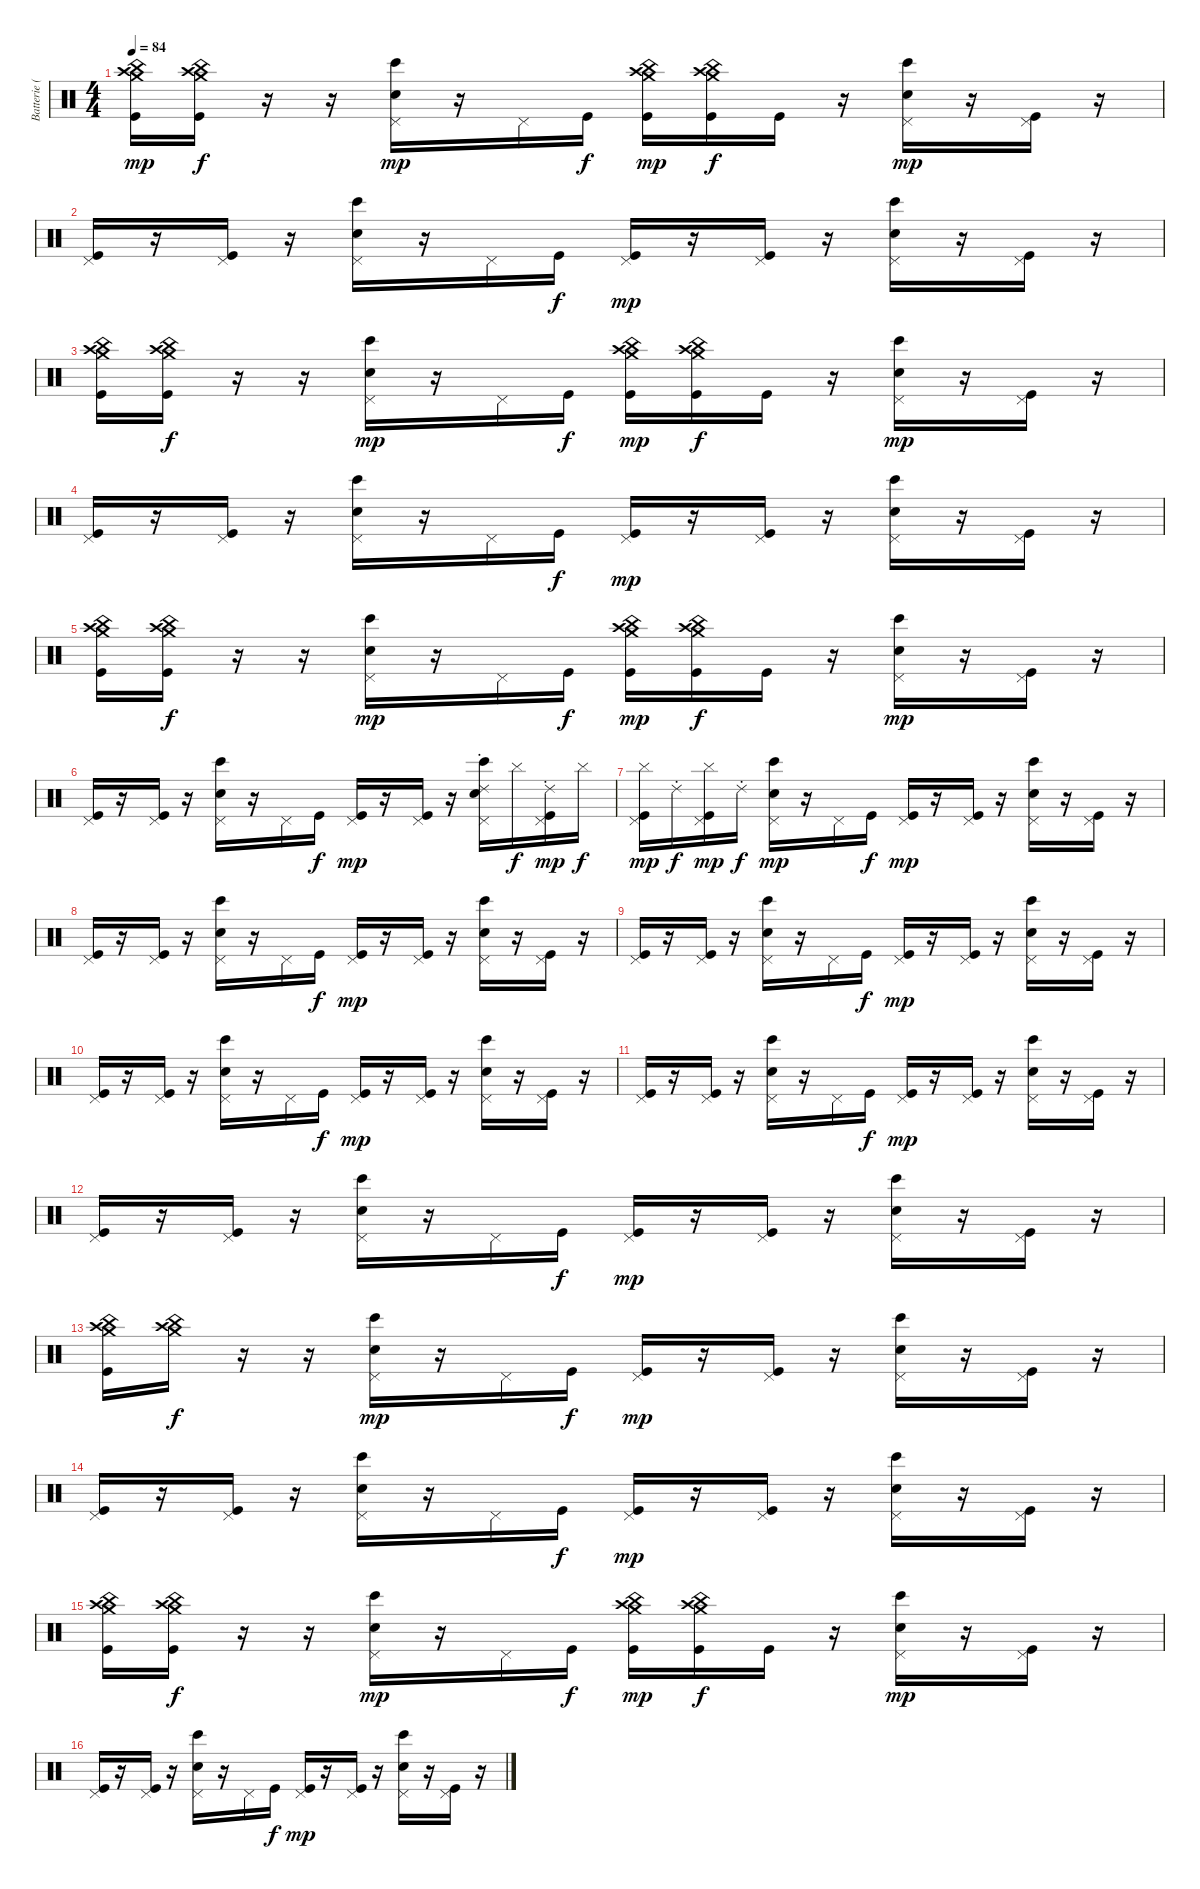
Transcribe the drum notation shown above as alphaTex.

\track ("Batterie (+hand claps)" "Batterie (") {instrument percussion}
\staff {score}
\articulation defaults
\ts (4 4)
\tempo 84
\clef neutral
\ks c
("Crash high (hit)" "China (hit)" "Crash medium (hit)" "Kick (hit)").16{dy mp} ("Crash high (hit)" "China (hit)" "Crash medium (hit)" "Kick (hit)").16{dy f} r.16 r.16 ("Pedal Hi-Hat (hit)" "Hand Clap (hit)" "Bongo High (hit)").16{dy mp} r.16 "Pedal Hi-Hat (hit)".16 "Kick (hit)".16{dy f} ("Crash high (hit)" "China (hit)" "Crash medium (hit)" "Kick (hit)").16{dy mp} ("Crash high (hit)" "China (hit)" "Crash medium (hit)" "Kick (hit)").16{dy f} "Kick (hit)".16 r.16 ("Pedal Hi-Hat (hit)" "Hand Clap (hit)" "Bongo High (hit)").16{dy mp} r.16 ("Pedal Hi-Hat (hit)" "Kick (hit)").16 r.16 |
("Pedal Hi-Hat (hit)" "Kick (hit)").16 r.16 ("Pedal Hi-Hat (hit)" "Kick (hit)").16 r.16 ("Pedal Hi-Hat (hit)" "Hand Clap (hit)" "Bongo High (hit)").16 r.16 "Pedal Hi-Hat (hit)".16 "Kick (hit)".16{dy f} ("Pedal Hi-Hat (hit)" "Kick (hit)").16{dy mp} r.16 ("Pedal Hi-Hat (hit)" "Kick (hit)").16 r.16 ("Pedal Hi-Hat (hit)" "Hand Clap (hit)" "Bongo High (hit)").16 r.16 ("Pedal Hi-Hat (hit)" "Kick (hit)").16 r.16 |
("Crash high (hit)" "China (hit)" "Crash medium (hit)" "Kick (hit)").16 ("Crash high (hit)" "China (hit)" "Crash medium (hit)" "Kick (hit)").16{dy f} r.16 r.16 ("Pedal Hi-Hat (hit)" "Hand Clap (hit)" "Bongo High (hit)").16{dy mp} r.16 "Pedal Hi-Hat (hit)".16 "Kick (hit)".16{dy f} ("Crash high (hit)" "China (hit)" "Crash medium (hit)" "Kick (hit)").16{dy mp} ("Crash high (hit)" "China (hit)" "Crash medium (hit)" "Kick (hit)").16{dy f} "Kick (hit)".16 r.16 ("Pedal Hi-Hat (hit)" "Hand Clap (hit)" "Bongo High (hit)").16{dy mp} r.16 ("Pedal Hi-Hat (hit)" "Kick (hit)").16 r.16 |
("Pedal Hi-Hat (hit)" "Kick (hit)").16 r.16 ("Pedal Hi-Hat (hit)" "Kick (hit)").16 r.16 ("Pedal Hi-Hat (hit)" "Hand Clap (hit)" "Bongo High (hit)").16 r.16 "Pedal Hi-Hat (hit)".16 "Kick (hit)".16{dy f} ("Pedal Hi-Hat (hit)" "Kick (hit)").16{dy mp} r.16 ("Pedal Hi-Hat (hit)" "Kick (hit)").16 r.16 ("Pedal Hi-Hat (hit)" "Hand Clap (hit)" "Bongo High (hit)").16 r.16 ("Pedal Hi-Hat (hit)" "Kick (hit)").16 r.16 |
("Crash high (hit)" "China (hit)" "Crash medium (hit)" "Kick (hit)").16 ("Crash high (hit)" "China (hit)" "Crash medium (hit)" "Kick (hit)").16{dy f} r.16 r.16 ("Pedal Hi-Hat (hit)" "Hand Clap (hit)" "Bongo High (hit)").16{dy mp} r.16 "Pedal Hi-Hat (hit)".16 "Kick (hit)".16{dy f} ("Crash high (hit)" "China (hit)" "Crash medium (hit)" "Kick (hit)").16{dy mp} ("Crash high (hit)" "China (hit)" "Crash medium (hit)" "Kick (hit)").16{dy f} "Kick (hit)".16 r.16 ("Pedal Hi-Hat (hit)" "Hand Clap (hit)" "Bongo High (hit)").16{dy mp} r.16 ("Pedal Hi-Hat (hit)" "Kick (hit)").16 r.16 |
("Pedal Hi-Hat (hit)" "Kick (hit)").16 r.16 ("Pedal Hi-Hat (hit)" "Kick (hit)").16 r.16 ("Pedal Hi-Hat (hit)" "Hand Clap (hit)" "Bongo High (hit)").16 r.16 "Pedal Hi-Hat (hit)".16 "Kick (hit)".16{dy f} ("Pedal Hi-Hat (hit)" "Kick (hit)").16{dy mp} r.16 ("Pedal Hi-Hat (hit)" "Kick (hit)").16 r.16 ("Pedal Hi-Hat (hit)" "Ride (choke) 2" "Hand Clap (hit)" "Bongo High (hit)").16 "Cymbal (hit)".16{dy f} ("Pedal Hi-Hat (hit)" "Ride (choke) 2" "Kick (hit)").16{dy mp} "Cymbal (hit)".16{dy f} |
("Pedal Hi-Hat (hit)" "Cymbal (hit)" "Kick (hit)").16{dy mp} "Ride (choke) 2".16{dy f} ("Pedal Hi-Hat (hit)" "Cymbal (hit)" "Kick (hit)").16{dy mp} "Ride (choke) 2".16{dy f} ("Pedal Hi-Hat (hit)" "Hand Clap (hit)" "Bongo High (hit)").16{dy mp} r.16 "Pedal Hi-Hat (hit)".16 "Kick (hit)".16{dy f} ("Pedal Hi-Hat (hit)" "Kick (hit)").16{dy mp} r.16 ("Pedal Hi-Hat (hit)" "Kick (hit)").16 r.16 ("Pedal Hi-Hat (hit)" "Hand Clap (hit)" "Bongo High (hit)").16 r.16 ("Pedal Hi-Hat (hit)" "Kick (hit)").16 r.16 |
("Pedal Hi-Hat (hit)" "Kick (hit)").16 r.16 ("Pedal Hi-Hat (hit)" "Kick (hit)").16 r.16 ("Pedal Hi-Hat (hit)" "Hand Clap (hit)" "Bongo High (hit)").16 r.16 "Pedal Hi-Hat (hit)".16 "Kick (hit)".16{dy f} ("Pedal Hi-Hat (hit)" "Kick (hit)").16{dy mp} r.16 ("Pedal Hi-Hat (hit)" "Kick (hit)").16 r.16 ("Pedal Hi-Hat (hit)" "Hand Clap (hit)" "Bongo High (hit)").16 r.16 ("Pedal Hi-Hat (hit)" "Kick (hit)").16 r.16 |
("Pedal Hi-Hat (hit)" "Kick (hit)").16 r.16 ("Pedal Hi-Hat (hit)" "Kick (hit)").16 r.16 ("Pedal Hi-Hat (hit)" "Hand Clap (hit)" "Bongo High (hit)").16 r.16 "Pedal Hi-Hat (hit)".16 "Kick (hit)".16{dy f} ("Pedal Hi-Hat (hit)" "Kick (hit)").16{dy mp} r.16 ("Pedal Hi-Hat (hit)" "Kick (hit)").16 r.16 ("Pedal Hi-Hat (hit)" "Hand Clap (hit)" "Bongo High (hit)").16 r.16 ("Pedal Hi-Hat (hit)" "Kick (hit)").16 r.16 |
("Pedal Hi-Hat (hit)" "Kick (hit)").16 r.16 ("Pedal Hi-Hat (hit)" "Kick (hit)").16 r.16 ("Pedal Hi-Hat (hit)" "Hand Clap (hit)" "Bongo High (hit)").16 r.16 "Pedal Hi-Hat (hit)".16 "Kick (hit)".16{dy f} ("Pedal Hi-Hat (hit)" "Kick (hit)").16{dy mp} r.16 ("Pedal Hi-Hat (hit)" "Kick (hit)").16 r.16 ("Pedal Hi-Hat (hit)" "Hand Clap (hit)" "Bongo High (hit)").16 r.16 ("Pedal Hi-Hat (hit)" "Kick (hit)").16 r.16 |
("Pedal Hi-Hat (hit)" "Kick (hit)").16 r.16 ("Pedal Hi-Hat (hit)" "Kick (hit)").16 r.16 ("Pedal Hi-Hat (hit)" "Hand Clap (hit)" "Bongo High (hit)").16 r.16 "Pedal Hi-Hat (hit)".16 "Kick (hit)".16{dy f} ("Pedal Hi-Hat (hit)" "Kick (hit)").16{dy mp} r.16 ("Pedal Hi-Hat (hit)" "Kick (hit)").16 r.16 ("Pedal Hi-Hat (hit)" "Hand Clap (hit)" "Bongo High (hit)").16 r.16 ("Pedal Hi-Hat (hit)" "Kick (hit)").16 r.16 |
("Pedal Hi-Hat (hit)" "Kick (hit)").16 r.16 ("Pedal Hi-Hat (hit)" "Kick (hit)").16 r.16 ("Pedal Hi-Hat (hit)" "Hand Clap (hit)" "Bongo High (hit)").16 r.16 "Pedal Hi-Hat (hit)".16 "Kick (hit)".16{dy f} ("Pedal Hi-Hat (hit)" "Kick (hit)").16{dy mp} r.16 ("Pedal Hi-Hat (hit)" "Kick (hit)").16 r.16 ("Pedal Hi-Hat (hit)" "Hand Clap (hit)" "Bongo High (hit)").16 r.16 ("Pedal Hi-Hat (hit)" "Kick (hit)").16 r.16 |
("Crash high (hit)" "China (hit)" "Crash medium (hit)" "Kick (hit)").16 ("Crash high (hit)" "China (hit)" "Crash medium (hit)").16{dy f} r.16 r.16 ("Pedal Hi-Hat (hit)" "Hand Clap (hit)" "Bongo High (hit)").16{dy mp} r.16 "Pedal Hi-Hat (hit)".16 "Kick (hit)".16{dy f} ("Pedal Hi-Hat (hit)" "Kick (hit)").16{dy mp} r.16 ("Pedal Hi-Hat (hit)" "Kick (hit)").16 r.16 ("Pedal Hi-Hat (hit)" "Hand Clap (hit)" "Bongo High (hit)").16 r.16 ("Pedal Hi-Hat (hit)" "Kick (hit)").16 r.16 |
("Pedal Hi-Hat (hit)" "Kick (hit)").16 r.16 ("Pedal Hi-Hat (hit)" "Kick (hit)").16 r.16 ("Pedal Hi-Hat (hit)" "Hand Clap (hit)" "Bongo High (hit)").16 r.16 "Pedal Hi-Hat (hit)".16 "Kick (hit)".16{dy f} ("Pedal Hi-Hat (hit)" "Kick (hit)").16{dy mp} r.16 ("Pedal Hi-Hat (hit)" "Kick (hit)").16 r.16 ("Pedal Hi-Hat (hit)" "Hand Clap (hit)" "Bongo High (hit)").16 r.16 ("Pedal Hi-Hat (hit)" "Kick (hit)").16 r.16 |
("Crash high (hit)" "China (hit)" "Crash medium (hit)" "Kick (hit)").16 ("Crash high (hit)" "China (hit)" "Crash medium (hit)" "Kick (hit)").16{dy f} r.16 r.16 ("Pedal Hi-Hat (hit)" "Hand Clap (hit)" "Bongo High (hit)").16{dy mp} r.16 "Pedal Hi-Hat (hit)".16 "Kick (hit)".16{dy f} ("Crash high (hit)" "China (hit)" "Crash medium (hit)" "Kick (hit)").16{dy mp} ("Crash high (hit)" "China (hit)" "Crash medium (hit)" "Kick (hit)").16{dy f} "Kick (hit)".16 r.16 ("Pedal Hi-Hat (hit)" "Hand Clap (hit)" "Bongo High (hit)").16{dy mp} r.16 ("Pedal Hi-Hat (hit)" "Kick (hit)").16 r.16 |
("Pedal Hi-Hat (hit)" "Kick (hit)").16 r.16 ("Pedal Hi-Hat (hit)" "Kick (hit)").16 r.16 ("Pedal Hi-Hat (hit)" "Hand Clap (hit)" "Bongo High (hit)").16 r.16 "Pedal Hi-Hat (hit)".16 "Kick (hit)".16{dy f} ("Pedal Hi-Hat (hit)" "Kick (hit)").16{dy mp} r.16 ("Pedal Hi-Hat (hit)" "Kick (hit)").16 r.16 ("Pedal Hi-Hat (hit)" "Hand Clap (hit)" "Bongo High (hit)").16 r.16 ("Pedal Hi-Hat (hit)" "Kick (hit)").16 r.16
